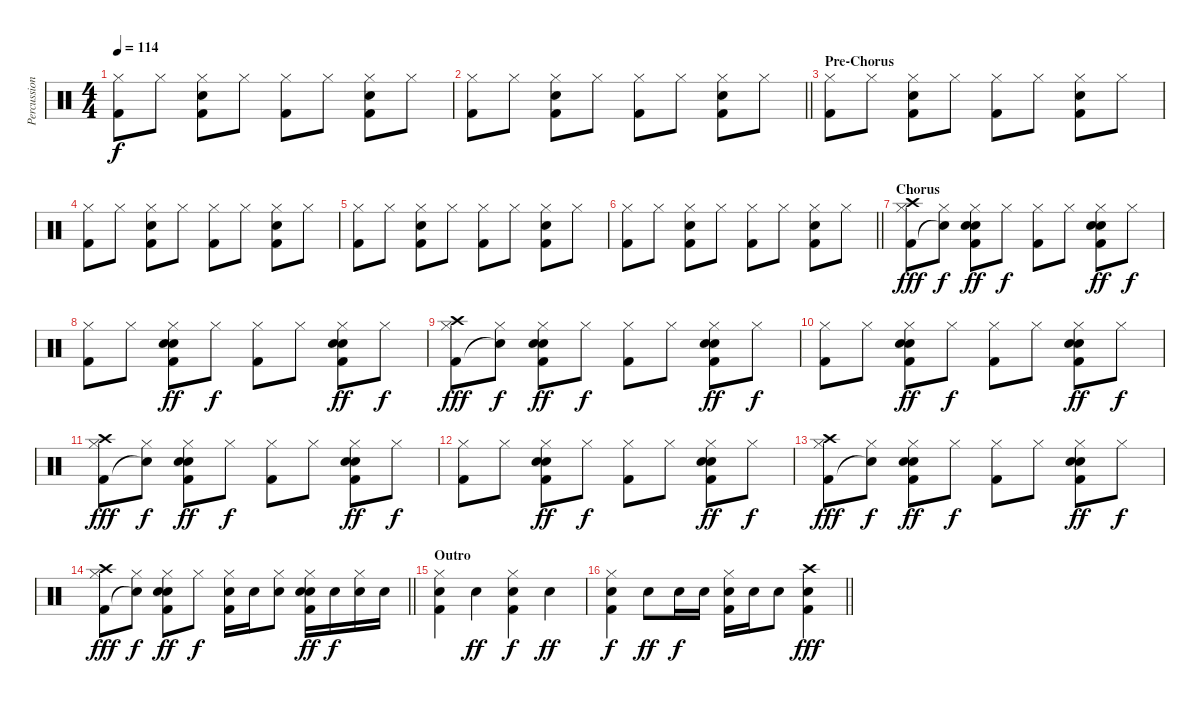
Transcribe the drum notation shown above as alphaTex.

\track ("Percussion" "Percussion") {instrument percussion}
\staff {score}
\articulation defaults
\ts (4 4)
\tempo 114
\clef neutral
\ks c
("Hi-Hat (closed)" "Kick (hit) 2").8{dy f} "Hi-Hat (closed)".8 ("Hi-Hat (closed)" "Snare (hit) 2" "Kick (hit) 2").8 "Hi-Hat (closed)".8 ("Hi-Hat (closed)" "Kick (hit) 2").8 "Hi-Hat (closed)".8 ("Hi-Hat (closed)" "Snare (hit) 2" "Kick (hit) 2").8 "Hi-Hat (closed)".8 |
\barLineRight lightlight
("Hi-Hat (closed)" "Kick (hit) 2").8 "Hi-Hat (closed)".8 ("Hi-Hat (closed)" "Snare (hit) 2" "Kick (hit) 2").8 "Hi-Hat (closed)".8 ("Hi-Hat (closed)" "Kick (hit) 2").8 "Hi-Hat (closed)".8 ("Hi-Hat (closed)" "Snare (hit) 2" "Kick (hit) 2").8 "Hi-Hat (closed)".8 |
\section ("" "Pre-Chorus")
("Hi-Hat (closed)" "Kick (hit) 2").8 "Hi-Hat (closed)".8 ("Hi-Hat (closed)" "Snare (hit) 2" "Kick (hit) 2").8 "Hi-Hat (closed)".8 ("Hi-Hat (closed)" "Kick (hit) 2").8 "Hi-Hat (closed)".8 ("Hi-Hat (closed)" "Snare (hit) 2" "Kick (hit) 2").8 "Hi-Hat (closed)".8 |
("Hi-Hat (closed)" "Kick (hit) 2").8 "Hi-Hat (closed)".8 ("Hi-Hat (closed)" "Snare (hit) 2" "Kick (hit) 2").8 "Hi-Hat (closed)".8 ("Hi-Hat (closed)" "Kick (hit) 2").8 "Hi-Hat (closed)".8 ("Hi-Hat (closed)" "Snare (hit) 2" "Kick (hit) 2").8 "Hi-Hat (closed)".8 |
("Hi-Hat (closed)" "Kick (hit) 2").8 "Hi-Hat (closed)".8 ("Hi-Hat (closed)" "Snare (hit) 2" "Kick (hit) 2").8 "Hi-Hat (closed)".8 ("Hi-Hat (closed)" "Kick (hit) 2").8 "Hi-Hat (closed)".8 ("Hi-Hat (closed)" "Snare (hit) 2" "Kick (hit) 2").8 "Hi-Hat (closed)".8 |
\barLineRight lightlight
("Hi-Hat (closed)" "Kick (hit) 2").8 "Hi-Hat (closed)".8 ("Hi-Hat (closed)" "Snare (hit) 2" "Kick (hit) 2").8 "Hi-Hat (closed)".8 ("Hi-Hat (closed)" "Kick (hit) 2").8 "Hi-Hat (closed)".8 ("Hi-Hat (closed)" "Snare (hit) 2" "Kick (hit) 2").8 "Hi-Hat (closed)".8 |
\section ("" "Chorus")
("Hi-Hat (closed)" "Kick (hit) 2" "Crash high (hit)").8{dy fff} ("Hi-Hat (closed)" "Snare (hit)"{t}).8{dy f} ("Hand Clap (hit)" "Hi-Hat (closed)" "Snare (hit) 2" "Kick (hit) 2").8{dy ff} "Hi-Hat (closed)".8{dy f} ("Hi-Hat (closed)" "Kick (hit) 2").8 "Hi-Hat (closed)".8 ("Hand Clap (hit)" "Hi-Hat (closed)" "Snare (hit) 2" "Kick (hit) 2").8{dy ff} "Hi-Hat (closed)".8{dy f} |
("Hi-Hat (closed)" "Kick (hit) 2").8 "Hi-Hat (closed)".8 ("Hand Clap (hit)" "Hi-Hat (closed)" "Snare (hit) 2" "Kick (hit) 2").8{dy ff} "Hi-Hat (closed)".8{dy f} ("Hi-Hat (closed)" "Kick (hit) 2").8 "Hi-Hat (closed)".8 ("Hand Clap (hit)" "Hi-Hat (closed)" "Snare (hit) 2" "Kick (hit) 2").8{dy ff} "Hi-Hat (closed)".8{dy f} |
("Hi-Hat (closed)" "Kick (hit) 2" "Crash high (hit)").8{dy fff} ("Hi-Hat (closed)" "Snare (hit)"{t}).8{dy f} ("Hand Clap (hit)" "Hi-Hat (closed)" "Snare (hit) 2" "Kick (hit) 2").8{dy ff} "Hi-Hat (closed)".8{dy f} ("Hi-Hat (closed)" "Kick (hit) 2").8 "Hi-Hat (closed)".8 ("Hand Clap (hit)" "Hi-Hat (closed)" "Snare (hit) 2" "Kick (hit) 2").8{dy ff} "Hi-Hat (closed)".8{dy f} |
("Hi-Hat (closed)" "Kick (hit) 2").8 "Hi-Hat (closed)".8 ("Hand Clap (hit)" "Hi-Hat (closed)" "Snare (hit) 2" "Kick (hit) 2").8{dy ff} "Hi-Hat (closed)".8{dy f} ("Hi-Hat (closed)" "Kick (hit) 2").8 "Hi-Hat (closed)".8 ("Hand Clap (hit)" "Hi-Hat (closed)" "Snare (hit) 2" "Kick (hit) 2").8{dy ff} "Hi-Hat (closed)".8{dy f} |
("Hi-Hat (closed)" "Kick (hit) 2" "Crash high (hit)").8{dy fff} ("Hi-Hat (closed)" "Snare (hit)"{t}).8{dy f} ("Hand Clap (hit)" "Hi-Hat (closed)" "Snare (hit) 2" "Kick (hit) 2").8{dy ff} "Hi-Hat (closed)".8{dy f} ("Hi-Hat (closed)" "Kick (hit) 2").8 "Hi-Hat (closed)".8 ("Hand Clap (hit)" "Hi-Hat (closed)" "Snare (hit) 2" "Kick (hit) 2").8{dy ff} "Hi-Hat (closed)".8{dy f} |
("Hi-Hat (closed)" "Kick (hit) 2").8 "Hi-Hat (closed)".8 ("Hand Clap (hit)" "Hi-Hat (closed)" "Snare (hit) 2" "Kick (hit) 2").8{dy ff} "Hi-Hat (closed)".8{dy f} ("Hi-Hat (closed)" "Kick (hit) 2").8 "Hi-Hat (closed)".8 ("Hand Clap (hit)" "Hi-Hat (closed)" "Snare (hit) 2" "Kick (hit) 2").8{dy ff} "Hi-Hat (closed)".8{dy f} |
("Hi-Hat (closed)" "Kick (hit) 2" "Crash high (hit)").8{dy fff} ("Hi-Hat (closed)" "Snare (hit)"{t}).8{dy f} ("Hand Clap (hit)" "Hi-Hat (closed)" "Snare (hit) 2" "Kick (hit) 2").8{dy ff} "Hi-Hat (closed)".8{dy f} ("Hi-Hat (closed)" "Kick (hit) 2").8 "Hi-Hat (closed)".8 ("Hand Clap (hit)" "Hi-Hat (closed)" "Snare (hit) 2" "Kick (hit) 2").8{dy ff} "Hi-Hat (closed)".8{dy f} |
\barLineRight lightlight
("Hi-Hat (closed)" "Kick (hit) 2" "Crash high (hit)").8{dy fff} ("Hi-Hat (closed)" "Snare (hit)"{t}).8{dy f} ("Hand Clap (hit)" "Hi-Hat (closed)" "Snare (hit) 2" "Kick (hit) 2").8{dy ff} "Hi-Hat (closed)".8{dy f} ("Hi-Hat (closed)" "Snare (hit) 2" "Kick (hit) 2").16 "Snare (hit) 2".16 ("Hi-Hat (closed)" "Snare (hit) 2").8 ("Hand Clap (hit)" "Hi-Hat (closed)" "Snare (hit) 2" "Kick (hit) 2").16{dy ff} "Snare (hit) 2".16{dy f} ("Hi-Hat (closed)" "Snare (hit) 2").16 "Snare (hit) 2".16 |
\section ("" "Outro")
("Hi-Hat (closed)" "Snare (hit) 2" "Kick (hit) 2").4 "Hand Clap (hit)".4{dy ff} ("Hi-Hat (closed)" "Snare (hit) 2" "Kick (hit) 2").4{dy f} "Hand Clap (hit)".4{dy ff} |
\barLineRight lightlight
("Hi-Hat (closed)" "Snare (hit) 2" "Kick (hit) 2").4{dy f} "Hand Clap (hit)".8{dy ff} "Snare (hit) 2".16{dy f} "Snare (hit) 2".16 ("Hi-Hat (closed)" "Snare (hit) 2" "Kick (hit) 2").16 "Snare (hit) 2".16 "Snare (hit) 2".8 ("Snare (hit) 2" "Kick (hit) 2" "Crash high (hit)").4{dy fff}
